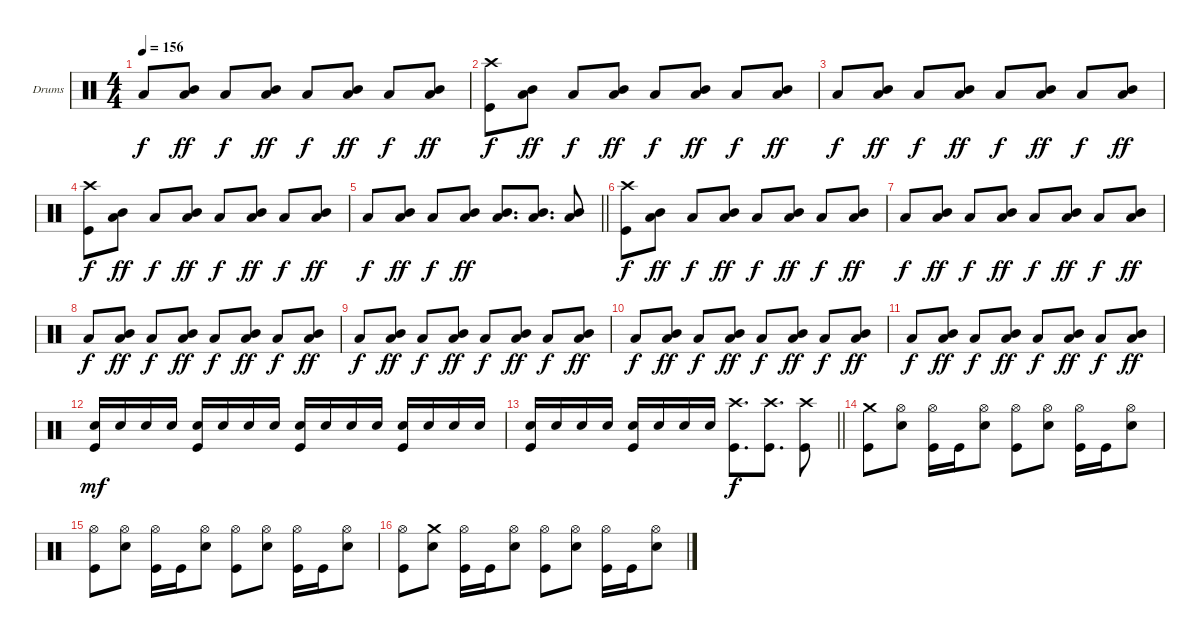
\bracketExtendMode groupsimilarinstruments
\firstSystemTrackNameOrientation horizontal
\otherSystemsTrackNameOrientation horizontal
\track ("Drums" "Drums") {instrument percussion}
\staff {score}
\articulation defaults
\ts (4 4)
\tempo 156
\clef neutral
\ks c "Low Tom (hit)".8{dy f}
("Low Tom (hit)" "Mid Tom (hit)").8{dy ff} "Low Tom (hit)".8{dy f} ("Low Tom (hit)" "Mid Tom (hit)").8{dy ff} "Low Tom (hit)".8{dy f} ("Low Tom (hit)" "Mid Tom (hit)").8{dy ff} "Low Tom (hit)".8{dy f} ("Low Tom (hit)" "Mid Tom (hit)").8{dy ff} |
("Kick (hit)" "Crash high (hit)").8{dy f} ("Low Tom (hit)" "Mid Tom (hit)").8{dy ff} "Low Tom (hit)".8{dy f} ("Low Tom (hit)" "Mid Tom (hit)").8{dy ff} "Low Tom (hit)".8{dy f} ("Low Tom (hit)" "Mid Tom (hit)").8{dy ff} "Low Tom (hit)".8{dy f} ("Low Tom (hit)" "Mid Tom (hit)").8{dy ff} |
"Low Tom (hit)".8{dy f} ("Low Tom (hit)" "Mid Tom (hit)").8{dy ff} "Low Tom (hit)".8{dy f} ("Low Tom (hit)" "Mid Tom (hit)").8{dy ff} "Low Tom (hit)".8{dy f} ("Low Tom (hit)" "Mid Tom (hit)").8{dy ff} "Low Tom (hit)".8{dy f} ("Low Tom (hit)" "Mid Tom (hit)").8{dy ff} |
("Kick (hit)" "Crash high (hit)").8{dy f} ("Low Tom (hit)" "Mid Tom (hit)").8{dy ff} "Low Tom (hit)".8{dy f} ("Low Tom (hit)" "Mid Tom (hit)").8{dy ff} "Low Tom (hit)".8{dy f} ("Low Tom (hit)" "Mid Tom (hit)").8{dy ff} "Low Tom (hit)".8{dy f} ("Low Tom (hit)" "Mid Tom (hit)").8{dy ff} |
\barLineRight lightlight "Low Tom (hit)".8{dy f}
("Low Tom (hit)" "Mid Tom (hit)").8{dy ff} "Low Tom (hit)".8{dy f} ("Low Tom (hit)" "Mid Tom (hit)").8{dy ff} ("Low Tom (hit)" "Mid Tom (hit)").8{d} ("Low Tom (hit)" "Mid Tom (hit)").8{d} ("Low Tom (hit)" "Mid Tom (hit)").8 |
("Kick (hit)" "Crash high (hit)").8{dy f} ("Low Tom (hit)" "Mid Tom (hit)").8{dy ff} "Low Tom (hit)".8{dy f} ("Low Tom (hit)" "Mid Tom (hit)").8{dy ff} "Low Tom (hit)".8{dy f} ("Low Tom (hit)" "Mid Tom (hit)").8{dy ff} "Low Tom (hit)".8{dy f} ("Low Tom (hit)" "Mid Tom (hit)").8{dy ff} |
"Low Tom (hit)".8{dy f} ("Low Tom (hit)" "Mid Tom (hit)").8{dy ff} "Low Tom (hit)".8{dy f} ("Low Tom (hit)" "Mid Tom (hit)").8{dy ff} "Low Tom (hit)".8{dy f} ("Low Tom (hit)" "Mid Tom (hit)").8{dy ff} "Low Tom (hit)".8{dy f} ("Low Tom (hit)" "Mid Tom (hit)").8{dy ff} |
"Low Tom (hit)".8{dy f} ("Low Tom (hit)" "Mid Tom (hit)").8{dy ff} "Low Tom (hit)".8{dy f} ("Low Tom (hit)" "Mid Tom (hit)").8{dy ff} "Low Tom (hit)".8{dy f} ("Low Tom (hit)" "Mid Tom (hit)").8{dy ff} "Low Tom (hit)".8{dy f} ("Low Tom (hit)" "Mid Tom (hit)").8{dy ff} |
"Low Tom (hit)".8{dy f} ("Low Tom (hit)" "Mid Tom (hit)").8{dy ff} "Low Tom (hit)".8{dy f} ("Low Tom (hit)" "Mid Tom (hit)").8{dy ff} "Low Tom (hit)".8{dy f} ("Low Tom (hit)" "Mid Tom (hit)").8{dy ff} "Low Tom (hit)".8{dy f} ("Low Tom (hit)" "Mid Tom (hit)").8{dy ff} |
"Low Tom (hit)".8{dy f} ("Low Tom (hit)" "Mid Tom (hit)").8{dy ff} "Low Tom (hit)".8{dy f} ("Low Tom (hit)" "Mid Tom (hit)").8{dy ff} "Low Tom (hit)".8{dy f} ("Low Tom (hit)" "Mid Tom (hit)").8{dy ff} "Low Tom (hit)".8{dy f} ("Low Tom (hit)" "Mid Tom (hit)").8{dy ff} |
"Low Tom (hit)".8{dy f} ("Low Tom (hit)" "Mid Tom (hit)").8{dy ff} "Low Tom (hit)".8{dy f} ("Low Tom (hit)" "Mid Tom (hit)").8{dy ff} "Low Tom (hit)".8{dy f} ("Low Tom (hit)" "Mid Tom (hit)").8{dy ff} "Low Tom (hit)".8{dy f} ("Low Tom (hit)" "Mid Tom (hit)").8{dy ff} |
("Snare (hit) 2" "Kick (hit)").16{dy mf} "Snare (hit) 2".16 "Snare (hit) 2".16 "Snare (hit) 2".16 ("Snare (hit) 2" "Kick (hit)").16 "Snare (hit) 2".16 "Snare (hit) 2".16 "Snare (hit) 2".16 ("Snare (hit) 2" "Kick (hit)").16 "Snare (hit) 2".16 "Snare (hit) 2".16 "Snare (hit) 2".16 ("Snare (hit) 2" "Kick (hit)").16 "Snare (hit) 2".16 "Snare (hit) 2".16 "Snare (hit) 2".16 |
\barLineRight lightlight
("Snare (hit) 2" "Kick (hit)").16 "Snare (hit) 2".16 "Snare (hit) 2".16 "Snare (hit) 2".16 ("Snare (hit) 2" "Kick (hit)").16 "Snare (hit) 2".16 "Snare (hit) 2".16 "Snare (hit) 2".16 ("Kick (hit)" "Crash high (hit)").8{d dy f} ("Kick (hit)" "Crash high (hit)").8{d} ("Kick (hit)" "Crash high (hit)").8 |
("Crash medium (hit)" "Kick (hit)").8 ("Hi-Hat (open)" "Snare (hit) 2").8 ("Hi-Hat (open)" "Kick (hit)").16 "Kick (hit)".16 ("Hi-Hat (open)" "Snare (hit) 2").8 ("Hi-Hat (open)" "Kick (hit)").8 ("Hi-Hat (open)" "Snare (hit) 2").8 ("Hi-Hat (open)" "Kick (hit)").16 "Kick (hit)".16 ("Hi-Hat (open)" "Snare (hit) 2").8 |
("Hi-Hat (open)" "Kick (hit)").8 ("Hi-Hat (open)" "Snare (hit) 2").8 ("Hi-Hat (open)" "Kick (hit)").16 "Kick (hit)".16 ("Hi-Hat (open)" "Snare (hit) 2").8 ("Hi-Hat (open)" "Kick (hit)").8 ("Hi-Hat (open)" "Snare (hit) 2").8 ("Hi-Hat (open)" "Kick (hit)").16 "Kick (hit)".16 ("Hi-Hat (open)" "Snare (hit) 2").8 |
("Hi-Hat (open)" "Kick (hit)").8 ("Crash medium (hit)" "Snare (hit) 2").8 ("Hi-Hat (open)" "Kick (hit)").16 "Kick (hit)".16 ("Hi-Hat (open)" "Snare (hit) 2").8 ("Hi-Hat (open)" "Kick (hit)").8 ("Hi-Hat (open)" "Snare (hit) 2").8 ("Hi-Hat (open)" "Kick (hit)").16 "Kick (hit)".16 ("Hi-Hat (open)" "Snare (hit) 2").8
